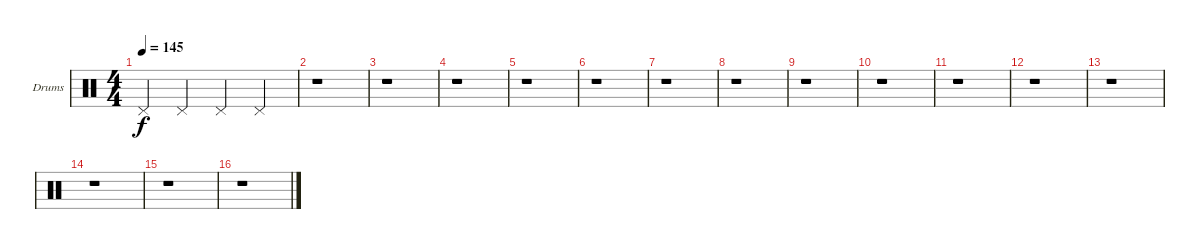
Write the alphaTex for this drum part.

\defaultSystemsLayout 4
\bracketExtendMode groupsimilarinstruments
\firstSystemTrackNameOrientation horizontal
\otherSystemsTrackNameOrientation horizontal
\track ("Drumkit" "Drums") {instrument percussion}
\staff {score}
\articulation defaults
\ts (4 4)
\tempo 145
\clef neutral
\ks c "Pedal Hi-Hat (hit)".4{dy f} "Pedal Hi-Hat (hit)".4 "Pedal Hi-Hat (hit)".4 "Pedal Hi-Hat (hit)".4
|
r.1 |
r.1 |
r.1 |
r.1 |
r.1 |
r.1 |
r.1 |
r.1 |
r.1 |
r.1 |
r.1 |
r.1 |
r.1 |
r.1 |
r.1
